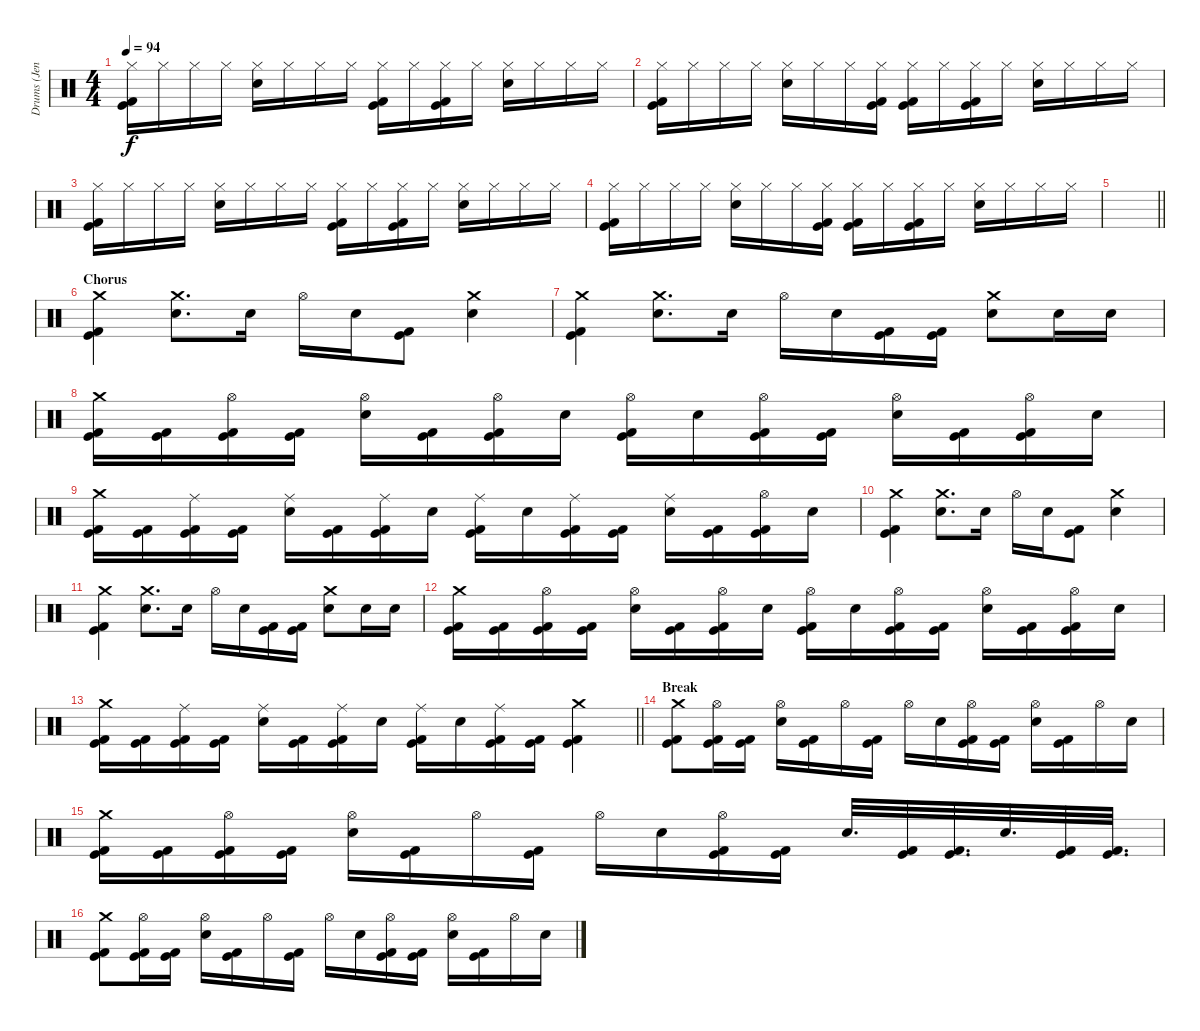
\track ("Drums (Jen Ledger)" "Drums (Jen") {instrument percussion}
\staff {score}
\articulation defaults
\ts (4 4)
\tempo 94
\clef neutral
\ks c
("Hi-Hat (closed)" "Kick (hit) 2" "Kick (hit)").16{dy f} "Hi-Hat (closed)".16 "Hi-Hat (closed)".16 "Hi-Hat (closed)".16 ("Electric Snare (hit)" "Hi-Hat (closed)").16 "Hi-Hat (closed)".16 "Hi-Hat (closed)".16 "Hi-Hat (closed)".16 ("Hi-Hat (closed)" "Kick (hit) 2" "Kick (hit)").16 "Hi-Hat (closed)".16 ("Hi-Hat (closed)" "Kick (hit) 2" "Kick (hit)").16 "Hi-Hat (closed)".16 ("Electric Snare (hit)" "Hi-Hat (closed)").16 "Hi-Hat (closed)".16 "Hi-Hat (closed)".16 "Hi-Hat (closed)".16 |
("Hi-Hat (closed)" "Kick (hit) 2" "Kick (hit)").16 "Hi-Hat (closed)".16 "Hi-Hat (closed)".16 "Hi-Hat (closed)".16 ("Electric Snare (hit)" "Hi-Hat (closed)").16 "Hi-Hat (closed)".16 "Hi-Hat (closed)".16 ("Hi-Hat (closed)" "Kick (hit)" "Kick (hit) 2").16 ("Hi-Hat (closed)" "Kick (hit) 2" "Kick (hit)").16 "Hi-Hat (closed)".16 ("Hi-Hat (closed)" "Kick (hit) 2" "Kick (hit)").16 "Hi-Hat (closed)".16 ("Electric Snare (hit)" "Hi-Hat (closed)").16 "Hi-Hat (closed)".16 "Hi-Hat (closed)".16 "Hi-Hat (closed)".16 |
("Hi-Hat (closed)" "Kick (hit) 2" "Kick (hit)").16 "Hi-Hat (closed)".16 "Hi-Hat (closed)".16 "Hi-Hat (closed)".16 ("Electric Snare (hit)" "Hi-Hat (closed)").16 "Hi-Hat (closed)".16 "Hi-Hat (closed)".16 "Hi-Hat (closed)".16 ("Hi-Hat (closed)" "Kick (hit) 2" "Kick (hit)").16 "Hi-Hat (closed)".16 ("Hi-Hat (closed)" "Kick (hit) 2" "Kick (hit)").16 "Hi-Hat (closed)".16 ("Electric Snare (hit)" "Hi-Hat (closed)").16 "Hi-Hat (closed)".16 "Hi-Hat (closed)".16 "Hi-Hat (closed)".16 |
("Hi-Hat (closed)" "Kick (hit) 2" "Kick (hit)").16 "Hi-Hat (closed)".16 "Hi-Hat (closed)".16 "Hi-Hat (closed)".16 ("Electric Snare (hit)" "Hi-Hat (closed)").16 "Hi-Hat (closed)".16 "Hi-Hat (closed)".16 ("Hi-Hat (closed)" "Kick (hit)" "Kick (hit) 2").16 ("Hi-Hat (closed)" "Kick (hit) 2" "Kick (hit)").16 "Hi-Hat (closed)".16 ("Hi-Hat (closed)" "Kick (hit) 2" "Kick (hit)").16 "Hi-Hat (closed)".16 ("Electric Snare (hit)" "Hi-Hat (closed)").16 "Hi-Hat (closed)".16 "Hi-Hat (closed)".16 "Hi-Hat (closed)".16 |
\barLineRight lightlight
|
\section ("" "Chorus")
("Crash medium (hit)" "Kick (hit) 2" "Kick (hit)").4 ("Electric Snare (hit)" "Crash medium (hit)").8{d} "Electric Snare (hit)".16 "Hi-Hat (open)".16 "Electric Snare (hit)".16 ("Kick (hit) 2" "Kick (hit)").8 ("Electric Snare (hit)" "Crash medium (hit)").4 |
("Crash medium (hit)" "Kick (hit) 2" "Kick (hit)").4 ("Electric Snare (hit)" "Crash medium (hit)").8{d} "Electric Snare (hit)".16 "Hi-Hat (open)".16 "Electric Snare (hit)".16 ("Kick (hit) 2" "Kick (hit)").16 ("Kick (hit) 2" "Kick (hit)").16 ("Electric Snare (hit)" "Crash medium (hit)").8 "Electric Snare (hit)".16 "Electric Snare (hit)".16 |
("Crash medium (hit)" "Kick (hit) 2" "Kick (hit)").16 ("Kick (hit) 2" "Kick (hit)").16 ("Hi-Hat (open)" "Kick (hit) 2" "Kick (hit)").16 ("Kick (hit) 2" "Kick (hit)").16 ("Electric Snare (hit)" "Hi-Hat (open)").16 ("Kick (hit) 2" "Kick (hit)").16 ("Hi-Hat (open)" "Kick (hit) 2" "Kick (hit)").16 "Electric Snare (hit)".16 ("Hi-Hat (open)" "Kick (hit) 2" "Kick (hit)").16 "Electric Snare (hit)".16 ("Hi-Hat (open)" "Kick (hit) 2" "Kick (hit)").16 ("Kick (hit) 2" "Kick (hit)").16 ("Electric Snare (hit)" "Hi-Hat (open)").16 ("Kick (hit) 2" "Kick (hit)").16 ("Hi-Hat (open)" "Kick (hit) 2" "Kick (hit)").16 "Electric Snare (hit)".16 |
("Crash medium (hit)" "Kick (hit) 2" "Kick (hit)").16 ("Kick (hit) 2" "Kick (hit)").16 ("Ride (middle)" "Kick (hit) 2" "Kick (hit)").16 ("Kick (hit) 2" "Kick (hit)").16 ("Electric Snare (hit)" "Ride (middle)").16 ("Kick (hit) 2" "Kick (hit)").16 ("Ride (middle)" "Kick (hit) 2" "Kick (hit)").16 "Electric Snare (hit)".16 ("Ride (middle)" "Kick (hit) 2" "Kick (hit)").16 "Electric Snare (hit)".16 ("Ride (middle)" "Kick (hit) 2" "Kick (hit)").16 ("Kick (hit) 2" "Kick (hit)").16 ("Electric Snare (hit)" "Ride (middle)").16 ("Kick (hit) 2" "Kick (hit)").16 ("Hi-Hat (open)" "Kick (hit) 2" "Kick (hit)").16 "Electric Snare (hit)".16 |
("Crash medium (hit)" "Kick (hit) 2" "Kick (hit)").4 ("Electric Snare (hit)" "Crash medium (hit)").8{d} "Electric Snare (hit)".16 "Hi-Hat (open)".16 "Electric Snare (hit)".16 ("Kick (hit) 2" "Kick (hit)").8 ("Electric Snare (hit)" "Crash medium (hit)").4 |
("Crash medium (hit)" "Kick (hit) 2" "Kick (hit)").4 ("Electric Snare (hit)" "Crash medium (hit)").8{d} "Electric Snare (hit)".16 "Hi-Hat (open)".16 "Electric Snare (hit)".16 ("Kick (hit) 2" "Kick (hit)").16 ("Kick (hit) 2" "Kick (hit)").16 ("Electric Snare (hit)" "Crash medium (hit)").8 "Electric Snare (hit)".16 "Electric Snare (hit)".16 |
("Crash medium (hit)" "Kick (hit) 2" "Kick (hit)").16 ("Kick (hit) 2" "Kick (hit)").16 ("Hi-Hat (open)" "Kick (hit) 2" "Kick (hit)").16 ("Kick (hit) 2" "Kick (hit)").16 ("Electric Snare (hit)" "Hi-Hat (open)").16 ("Kick (hit) 2" "Kick (hit)").16 ("Hi-Hat (open)" "Kick (hit) 2" "Kick (hit)").16 "Electric Snare (hit)".16 ("Hi-Hat (open)" "Kick (hit) 2" "Kick (hit)").16 "Electric Snare (hit)".16 ("Hi-Hat (open)" "Kick (hit) 2" "Kick (hit)").16 ("Kick (hit) 2" "Kick (hit)").16 ("Electric Snare (hit)" "Hi-Hat (open)").16 ("Kick (hit) 2" "Kick (hit)").16 ("Hi-Hat (open)" "Kick (hit) 2" "Kick (hit)").16 "Electric Snare (hit)".16 |
\barLineRight lightlight
("Crash medium (hit)" "Kick (hit) 2" "Kick (hit)").16 ("Kick (hit) 2" "Kick (hit)").16 ("Ride (middle)" "Kick (hit) 2" "Kick (hit)").16 ("Kick (hit) 2" "Kick (hit)").16 ("Electric Snare (hit)" "Ride (middle)").16 ("Kick (hit) 2" "Kick (hit)").16 ("Ride (middle)" "Kick (hit) 2" "Kick (hit)").16 "Electric Snare (hit)".16 ("Ride (middle)" "Kick (hit) 2" "Kick (hit)").16 "Electric Snare (hit)".16 ("Ride (middle)" "Kick (hit) 2" "Kick (hit)").16 ("Kick (hit) 2" "Kick (hit)").16 ("Crash medium (hit)" "Kick (hit) 2" "Kick (hit)").4 |
\section ("" "Break")
("Crash medium (hit)" "Kick (hit) 2" "Kick (hit)").8 ("Hi-Hat (open)" "Kick (hit) 2" "Kick (hit)").16 ("Kick (hit) 2" "Kick (hit)").16 ("Electric Snare (hit)" "Hi-Hat (open)").16 ("Kick (hit) 2" "Kick (hit)").16 "Hi-Hat (open)".16 ("Kick (hit) 2" "Kick (hit)").16 "Hi-Hat (open)".16 "Electric Snare (hit)".16 ("Hi-Hat (open)" "Kick (hit) 2" "Kick (hit)").16 ("Kick (hit) 2" "Kick (hit)").16 ("Electric Snare (hit)" "Hi-Hat (open)").16 ("Kick (hit) 2" "Kick (hit)").16 "Hi-Hat (open)".16 "Electric Snare (hit)".16 |
("Crash medium (hit)" "Kick (hit) 2" "Kick (hit)").16 ("Kick (hit) 2" "Kick (hit)").16 ("Hi-Hat (open)" "Kick (hit) 2" "Kick (hit)").16 ("Kick (hit) 2" "Kick (hit)").16 ("Electric Snare (hit)" "Hi-Hat (open)").16 ("Kick (hit) 2" "Kick (hit)").16 "Hi-Hat (open)".16 ("Kick (hit) 2" "Kick (hit)").16 "Hi-Hat (open)".16 "Electric Snare (hit)".16 ("Hi-Hat (open)" "Kick (hit) 2" "Kick (hit)").16 ("Kick (hit) 2" "Kick (hit)").16 "Electric Snare (hit)".32{d} ("Kick (hit) 2" "Kick (hit)").32 ("Kick (hit) 2" "Kick (hit)").32{d} "Electric Snare (hit)".32{d} ("Kick (hit) 2" "Kick (hit)").32 ("Kick (hit) 2" "Kick (hit)").32{d} |
("Crash medium (hit)" "Kick (hit) 2" "Kick (hit)").8 ("Hi-Hat (open)" "Kick (hit) 2" "Kick (hit)").16 ("Kick (hit) 2" "Kick (hit)").16 ("Electric Snare (hit)" "Hi-Hat (open)").16 ("Kick (hit) 2" "Kick (hit)").16 "Hi-Hat (open)".16 ("Kick (hit) 2" "Kick (hit)").16 "Hi-Hat (open)".16 "Electric Snare (hit)".16 ("Hi-Hat (open)" "Kick (hit) 2" "Kick (hit)").16 ("Kick (hit) 2" "Kick (hit)").16 ("Electric Snare (hit)" "Hi-Hat (open)").16 ("Kick (hit) 2" "Kick (hit)").16 "Hi-Hat (open)".16 "Electric Snare (hit)".16
